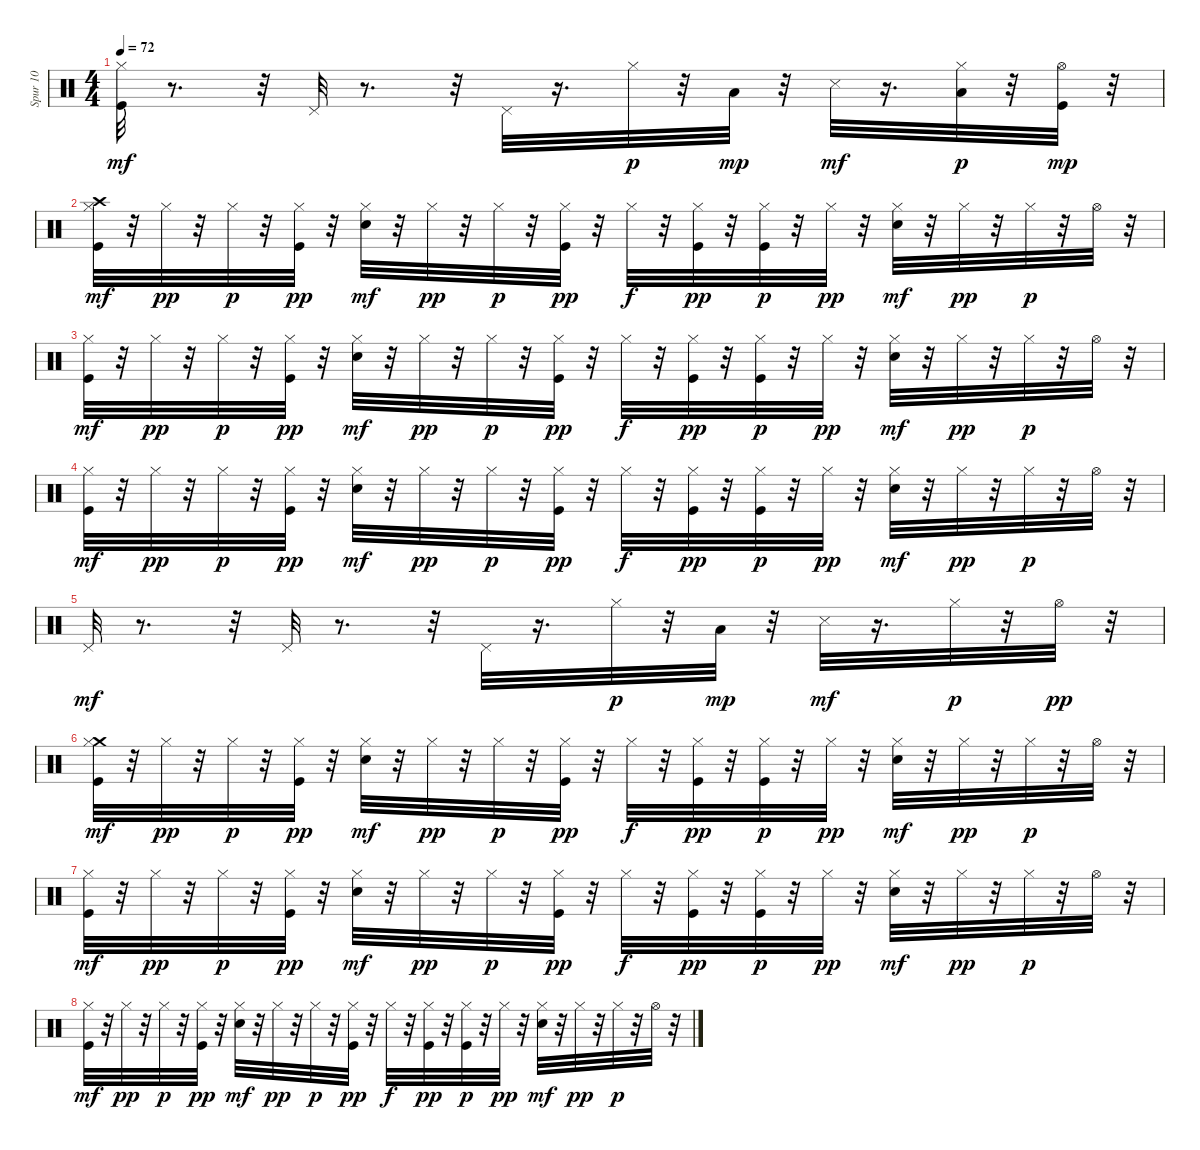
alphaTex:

\track ("Spur 10" "Spur 10") {instrument percussion}
\staff {score}
\articulation defaults
\ts (4 4)
\tempo 72
\clef neutral
\ks c
("Kick (hit)" "Hi-Hat (closed)").32{dy mf} r.8{d} r.32 "Pedal Hi-Hat (hit)".32 r.8{d} r.32 "Pedal Hi-Hat (hit)".32 r.16{d} "Hi-Hat (closed)".32{dy p} r.32 "Low Tom (hit)".32{dy mp} r.32 "Snare (side stick) 3".32{dy mf} r.16{d} ("Hi-Hat (closed)" "Low Tom (hit)").32{dy p} r.32 ("Kick (hit)" "Hi-Hat (open)").32{dy mp} r.32 |
("Crash high (hit)" "Kick (hit)" "Hi-Hat (closed)").32{dy mf} r.32 "Hi-Hat (closed)".32{dy pp} r.32 "Hi-Hat (closed)".32{dy p} r.32 ("Kick (hit)" "Hi-Hat (closed)").32{dy pp} r.32 ("Snare (hit) 2" "Hi-Hat (closed)").32{dy mf} r.32 "Hi-Hat (closed)".32{dy pp} r.32 "Hi-Hat (closed)".32{dy p} r.32 ("Kick (hit)" "Hi-Hat (closed)").32{dy pp} r.32 "Hi-Hat (closed)".32{dy f} r.32 ("Kick (hit)" "Hi-Hat (closed)").32{dy pp} r.32 ("Kick (hit)" "Hi-Hat (closed)").32{dy p} r.32 "Hi-Hat (closed)".32{dy pp} r.32 ("Snare (hit) 2" "Hi-Hat (closed)").32{dy mf} r.32 "Hi-Hat (closed)".32{dy pp} r.32 "Hi-Hat (closed)".32{dy p} r.32 "Hi-Hat (open)".32 r.32 |
("Kick (hit)" "Hi-Hat (closed)").32{dy mf} r.32 "Hi-Hat (closed)".32{dy pp} r.32 "Hi-Hat (closed)".32{dy p} r.32 ("Kick (hit)" "Hi-Hat (closed)").32{dy pp} r.32 ("Snare (hit) 2" "Hi-Hat (closed)").32{dy mf} r.32 "Hi-Hat (closed)".32{dy pp} r.32 "Hi-Hat (closed)".32{dy p} r.32 ("Kick (hit)" "Hi-Hat (closed)").32{dy pp} r.32 "Hi-Hat (closed)".32{dy f} r.32 ("Kick (hit)" "Hi-Hat (closed)").32{dy pp} r.32 ("Kick (hit)" "Hi-Hat (closed)").32{dy p} r.32 "Hi-Hat (closed)".32{dy pp} r.32 ("Snare (hit) 2" "Hi-Hat (closed)").32{dy mf} r.32 "Hi-Hat (closed)".32{dy pp} r.32 "Hi-Hat (closed)".32{dy p} r.32 "Hi-Hat (open)".32 r.32 |
("Kick (hit)" "Hi-Hat (closed)").32{dy mf} r.32 "Hi-Hat (closed)".32{dy pp} r.32 "Hi-Hat (closed)".32{dy p} r.32 ("Kick (hit)" "Hi-Hat (closed)").32{dy pp} r.32 ("Snare (hit) 2" "Hi-Hat (closed)").32{dy mf} r.32 "Hi-Hat (closed)".32{dy pp} r.32 "Hi-Hat (closed)".32{dy p} r.32 ("Kick (hit)" "Hi-Hat (closed)").32{dy pp} r.32 "Hi-Hat (closed)".32{dy f} r.32 ("Kick (hit)" "Hi-Hat (closed)").32{dy pp} r.32 ("Kick (hit)" "Hi-Hat (closed)").32{dy p} r.32 "Hi-Hat (closed)".32{dy pp} r.32 ("Snare (hit) 2" "Hi-Hat (closed)").32{dy mf} r.32 "Hi-Hat (closed)".32{dy pp} r.32 "Hi-Hat (closed)".32{dy p} r.32 "Hi-Hat (open)".32 r.32 |
"Pedal Hi-Hat (hit)".32{dy mf} r.8{d} r.32 "Pedal Hi-Hat (hit)".32 r.8{d} r.32 "Pedal Hi-Hat (hit)".32 r.16{d} "Hi-Hat (closed)".32{dy p} r.32 "Low Tom (hit)".32{dy mp} r.32 "Snare (side stick) 3".32{dy mf} r.16{d} "Hi-Hat (closed)".32{dy p} r.32 "Hi-Hat (open)".32{dy pp} r.32 |
("Crash medium (hit)" "Kick (hit)" "Hi-Hat (closed)").32{dy mf} r.32 "Hi-Hat (closed)".32{dy pp} r.32 "Hi-Hat (closed)".32{dy p} r.32 ("Kick (hit)" "Hi-Hat (closed)").32{dy pp} r.32 ("Snare (hit) 2" "Hi-Hat (closed)").32{dy mf} r.32 "Hi-Hat (closed)".32{dy pp} r.32 "Hi-Hat (closed)".32{dy p} r.32 ("Kick (hit)" "Hi-Hat (closed)").32{dy pp} r.32 "Hi-Hat (closed)".32{dy f} r.32 ("Kick (hit)" "Hi-Hat (closed)").32{dy pp} r.32 ("Kick (hit)" "Hi-Hat (closed)").32{dy p} r.32 "Hi-Hat (closed)".32{dy pp} r.32 ("Snare (hit) 2" "Hi-Hat (closed)").32{dy mf} r.32 "Hi-Hat (closed)".32{dy pp} r.32 "Hi-Hat (closed)".32{dy p} r.32 "Hi-Hat (open)".32 r.32 |
("Kick (hit)" "Hi-Hat (closed)").32{dy mf} r.32 "Hi-Hat (closed)".32{dy pp} r.32 "Hi-Hat (closed)".32{dy p} r.32 ("Kick (hit)" "Hi-Hat (closed)").32{dy pp} r.32 ("Snare (hit) 2" "Hi-Hat (closed)").32{dy mf} r.32 "Hi-Hat (closed)".32{dy pp} r.32 "Hi-Hat (closed)".32{dy p} r.32 ("Kick (hit)" "Hi-Hat (closed)").32{dy pp} r.32 "Hi-Hat (closed)".32{dy f} r.32 ("Kick (hit)" "Hi-Hat (closed)").32{dy pp} r.32 ("Kick (hit)" "Hi-Hat (closed)").32{dy p} r.32 "Hi-Hat (closed)".32{dy pp} r.32 ("Snare (hit) 2" "Hi-Hat (closed)").32{dy mf} r.32 "Hi-Hat (closed)".32{dy pp} r.32 "Hi-Hat (closed)".32{dy p} r.32 "Hi-Hat (open)".32 r.32 |
("Kick (hit)" "Hi-Hat (closed)").32{dy mf} r.32 "Hi-Hat (closed)".32{dy pp} r.32 "Hi-Hat (closed)".32{dy p} r.32 ("Kick (hit)" "Hi-Hat (closed)").32{dy pp} r.32 ("Snare (hit) 2" "Hi-Hat (closed)").32{dy mf} r.32 "Hi-Hat (closed)".32{dy pp} r.32 "Hi-Hat (closed)".32{dy p} r.32 ("Kick (hit)" "Hi-Hat (closed)").32{dy pp} r.32 "Hi-Hat (closed)".32{dy f} r.32 ("Kick (hit)" "Hi-Hat (closed)").32{dy pp} r.32 ("Kick (hit)" "Hi-Hat (closed)").32{dy p} r.32 "Hi-Hat (closed)".32{dy pp} r.32 ("Snare (hit) 2" "Hi-Hat (closed)").32{dy mf} r.32 "Hi-Hat (closed)".32{dy pp} r.32 "Hi-Hat (closed)".32{dy p} r.32 "Hi-Hat (open)".32 r.32
